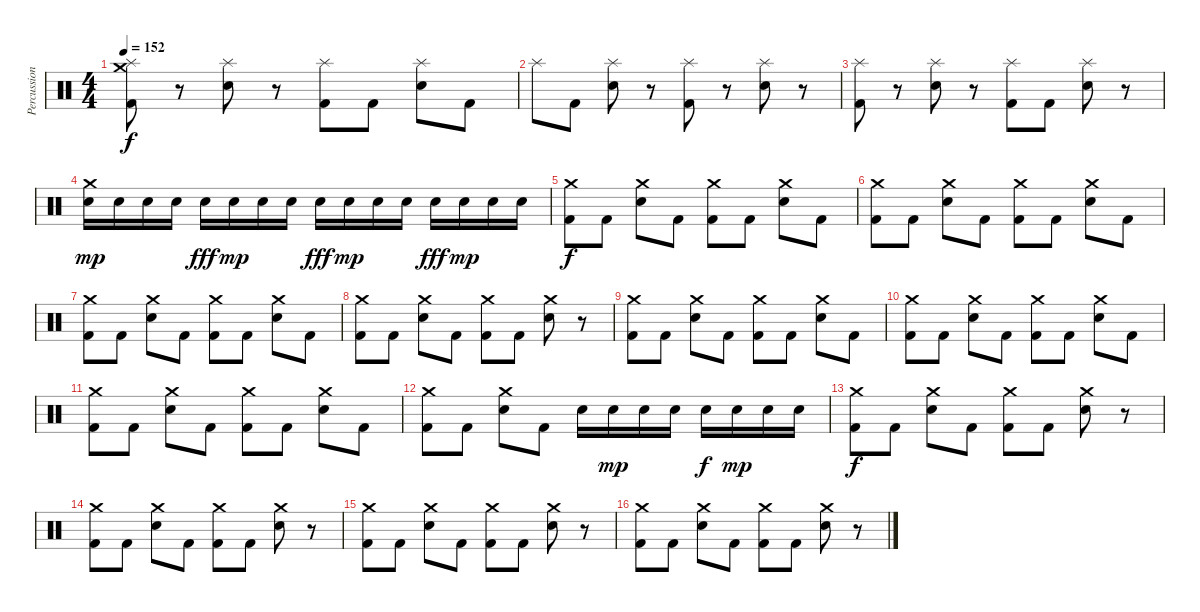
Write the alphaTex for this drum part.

\track ("Percussions" "Percussion") {instrument percussion}
\staff {score}
\articulation defaults
\ts (4 4)
\tempo 152
\clef neutral
\ks c
("Splash (hit)" "Crash medium (hit)" "Kick (hit) 2").8{dy f} r.8 ("Splash (hit)" "Electric Snare (hit)").8 r.8 ("Splash (hit)" "Kick (hit) 2").8 "Kick (hit) 2".8 ("Splash (hit)" "Electric Snare (hit)").8 "Kick (hit) 2".8 |
"Splash (hit)".8 "Kick (hit) 2".8 ("Splash (hit)" "Electric Snare (hit)").8 r.8 ("Splash (hit)" "Kick (hit) 2").8 r.8 ("Splash (hit)" "Electric Snare (hit)").8 r.8 |
("Splash (hit)" "Kick (hit) 2").8 r.8 ("Splash (hit)" "Electric Snare (hit)").8 r.8 ("Splash (hit)" "Kick (hit) 2").8 "Kick (hit) 2".8 ("Splash (hit)" "Electric Snare (hit)").8 r.8 |
("Crash medium (hit)" "Electric Snare (hit)").16{dy mp} "Electric Snare (hit)".16 "Electric Snare (hit)".16 "Electric Snare (hit)".16 "Electric Snare (hit)".16{dy fff} "Electric Snare (hit)".16{dy mp} "Electric Snare (hit)".16 "Electric Snare (hit)".16 "Electric Snare (hit)".16{dy fff} "Electric Snare (hit)".16{dy mp} "Electric Snare (hit)".16 "Electric Snare (hit)".16 "Electric Snare (hit)".16{dy fff} "Electric Snare (hit)".16{dy mp} "Electric Snare (hit)".16 "Electric Snare (hit)".16 |
("Crash medium (hit)" "Kick (hit) 2").8{dy f} "Kick (hit) 2".8 ("Crash medium (hit)" "Electric Snare (hit)").8 "Kick (hit) 2".8 ("Crash medium (hit)" "Kick (hit) 2").8 "Kick (hit) 2".8 ("Crash medium (hit)" "Electric Snare (hit)").8 "Kick (hit) 2".8 |
("Crash medium (hit)" "Kick (hit) 2").8 "Kick (hit) 2".8 ("Crash medium (hit)" "Electric Snare (hit)").8 "Kick (hit) 2".8 ("Crash medium (hit)" "Kick (hit) 2").8 "Kick (hit) 2".8 ("Crash medium (hit)" "Electric Snare (hit)").8 "Kick (hit) 2".8 |
("Crash medium (hit)" "Kick (hit) 2").8 "Kick (hit) 2".8 ("Crash medium (hit)" "Electric Snare (hit)").8 "Kick (hit) 2".8 ("Crash medium (hit)" "Kick (hit) 2").8 "Kick (hit) 2".8 ("Crash medium (hit)" "Electric Snare (hit)").8 "Kick (hit) 2".8 |
("Crash medium (hit)" "Kick (hit) 2").8 "Kick (hit) 2".8 ("Crash medium (hit)" "Electric Snare (hit)").8 "Kick (hit) 2".8 ("Crash medium (hit)" "Kick (hit) 2").8 "Kick (hit) 2".8 ("Crash medium (hit)" "Electric Snare (hit)").8 r.8 |
("Crash medium (hit)" "Kick (hit) 2").8 "Kick (hit) 2".8 ("Crash medium (hit)" "Electric Snare (hit)").8 "Kick (hit) 2".8 ("Crash medium (hit)" "Kick (hit) 2").8 "Kick (hit) 2".8 ("Crash medium (hit)" "Electric Snare (hit)").8 "Kick (hit) 2".8 |
("Crash medium (hit)" "Kick (hit) 2").8 "Kick (hit) 2".8 ("Crash medium (hit)" "Electric Snare (hit)").8 "Kick (hit) 2".8 ("Crash medium (hit)" "Kick (hit) 2").8 "Kick (hit) 2".8 ("Crash medium (hit)" "Electric Snare (hit)").8 "Kick (hit) 2".8 |
("Crash medium (hit)" "Kick (hit) 2").8 "Kick (hit) 2".8 ("Crash medium (hit)" "Electric Snare (hit)").8 "Kick (hit) 2".8 ("Crash medium (hit)" "Kick (hit) 2").8 "Kick (hit) 2".8 ("Crash medium (hit)" "Electric Snare (hit)").8 "Kick (hit) 2".8 |
("Crash medium (hit)" "Kick (hit) 2").8 "Kick (hit) 2".8 ("Crash medium (hit)" "Electric Snare (hit)").8 "Kick (hit) 2".8 "Electric Snare (hit)".16 "Electric Snare (hit)".16{dy mp} "Electric Snare (hit)".16 "Electric Snare (hit)".16 "Electric Snare (hit)".16{dy f} "Electric Snare (hit)".16{dy mp} "Electric Snare (hit)".16 "Electric Snare (hit)".16 |
("Crash medium (hit)" "Kick (hit) 2").8{dy f} "Kick (hit) 2".8 ("Crash medium (hit)" "Electric Snare (hit)").8 "Kick (hit) 2".8 ("Crash medium (hit)" "Kick (hit) 2").8 "Kick (hit) 2".8 ("Crash medium (hit)" "Electric Snare (hit)").8 r.8 |
("Crash medium (hit)" "Kick (hit) 2").8 "Kick (hit) 2".8 ("Crash medium (hit)" "Electric Snare (hit)").8 "Kick (hit) 2".8 ("Crash medium (hit)" "Kick (hit) 2").8 "Kick (hit) 2".8 ("Crash medium (hit)" "Electric Snare (hit)").8 r.8 |
("Crash medium (hit)" "Kick (hit) 2").8 "Kick (hit) 2".8 ("Crash medium (hit)" "Electric Snare (hit)").8 "Kick (hit) 2".8 ("Crash medium (hit)" "Kick (hit) 2").8 "Kick (hit) 2".8 ("Crash medium (hit)" "Electric Snare (hit)").8 r.8 |
("Crash medium (hit)" "Kick (hit) 2").8 "Kick (hit) 2".8 ("Crash medium (hit)" "Electric Snare (hit)").8 "Kick (hit) 2".8 ("Crash medium (hit)" "Kick (hit) 2").8 "Kick (hit) 2".8 ("Crash medium (hit)" "Electric Snare (hit)").8 r.8
